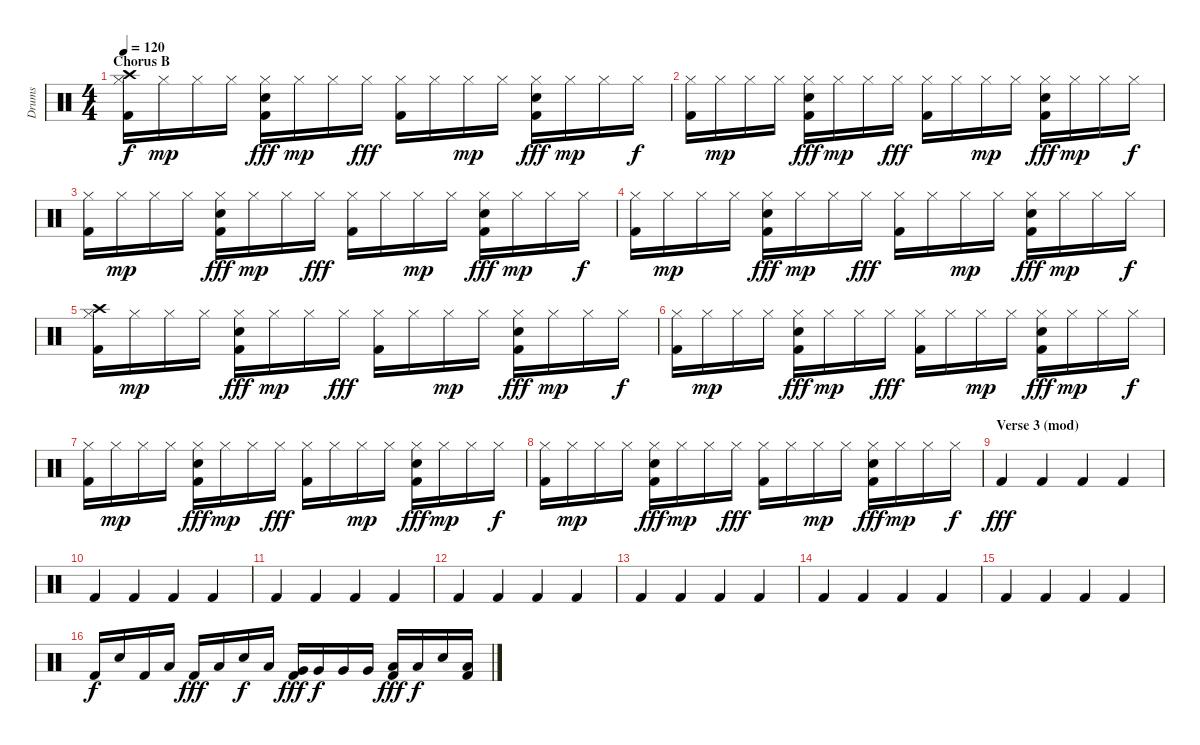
\track ("Drums" "Drums") {instrument percussion}
\staff {score}
\articulation defaults
\ts (4 4)
\section ("" "Chorus B")
\tempo 120
\clef neutral
\ks c
("Hi-Hat (closed)" "Crash high (hit)" "Kick (hit) 2").16{dy f} "Hi-Hat (closed)".16{dy mp} "Hi-Hat (closed)".16 "Hi-Hat (closed)".16 ("Hi-Hat (closed)" "Snare (hit) 2" "Kick (hit) 2").16{dy fff} "Hi-Hat (closed)".16{dy mp} "Hi-Hat (closed)".16 "Hi-Hat (closed)".16{dy fff} ("Hi-Hat (closed)" "Kick (hit) 2").16 "Hi-Hat (closed)".16 "Hi-Hat (closed)".16{dy mp} "Hi-Hat (closed)".16 ("Hi-Hat (closed)" "Snare (hit) 2" "Kick (hit) 2").16{dy fff} "Hi-Hat (closed)".16{dy mp} "Hi-Hat (closed)".16 "Hi-Hat (closed)".16{dy f} |
("Hi-Hat (closed)" "Kick (hit) 2").16 "Hi-Hat (closed)".16{dy mp} "Hi-Hat (closed)".16 "Hi-Hat (closed)".16 ("Hi-Hat (closed)" "Snare (hit) 2" "Kick (hit) 2").16{dy fff} "Hi-Hat (closed)".16{dy mp} "Hi-Hat (closed)".16 "Hi-Hat (closed)".16{dy fff} ("Hi-Hat (closed)" "Kick (hit) 2").16 "Hi-Hat (closed)".16 "Hi-Hat (closed)".16{dy mp} "Hi-Hat (closed)".16 ("Hi-Hat (closed)" "Snare (hit) 2" "Kick (hit) 2").16{dy fff} "Hi-Hat (closed)".16{dy mp} "Hi-Hat (closed)".16 "Hi-Hat (closed)".16{dy f} |
("Hi-Hat (closed)" "Kick (hit) 2").16 "Hi-Hat (closed)".16{dy mp} "Hi-Hat (closed)".16 "Hi-Hat (closed)".16 ("Hi-Hat (closed)" "Snare (hit) 2" "Kick (hit) 2").16{dy fff} "Hi-Hat (closed)".16{dy mp} "Hi-Hat (closed)".16 "Hi-Hat (closed)".16{dy fff} ("Hi-Hat (closed)" "Kick (hit) 2").16 "Hi-Hat (closed)".16 "Hi-Hat (closed)".16{dy mp} "Hi-Hat (closed)".16 ("Hi-Hat (closed)" "Snare (hit) 2" "Kick (hit) 2").16{dy fff} "Hi-Hat (closed)".16{dy mp} "Hi-Hat (closed)".16 "Hi-Hat (closed)".16{dy f} |
("Hi-Hat (closed)" "Kick (hit) 2").16 "Hi-Hat (closed)".16{dy mp} "Hi-Hat (closed)".16 "Hi-Hat (closed)".16 ("Hi-Hat (closed)" "Snare (hit) 2" "Kick (hit) 2").16{dy fff} "Hi-Hat (closed)".16{dy mp} "Hi-Hat (closed)".16 "Hi-Hat (closed)".16{dy fff} ("Hi-Hat (closed)" "Kick (hit) 2").16 "Hi-Hat (closed)".16 "Hi-Hat (closed)".16{dy mp} "Hi-Hat (closed)".16 ("Hi-Hat (closed)" "Snare (hit) 2" "Kick (hit) 2").16{dy fff} "Hi-Hat (closed)".16{dy mp} "Hi-Hat (closed)".16 "Hi-Hat (closed)".16{dy f} |
("Hi-Hat (closed)" "Crash high (hit)" "Kick (hit) 2").16 "Hi-Hat (closed)".16{dy mp} "Hi-Hat (closed)".16 "Hi-Hat (closed)".16 ("Hi-Hat (closed)" "Snare (hit) 2" "Kick (hit) 2").16{dy fff} "Hi-Hat (closed)".16{dy mp} "Hi-Hat (closed)".16 "Hi-Hat (closed)".16{dy fff} ("Hi-Hat (closed)" "Kick (hit) 2").16 "Hi-Hat (closed)".16 "Hi-Hat (closed)".16{dy mp} "Hi-Hat (closed)".16 ("Hi-Hat (closed)" "Snare (hit) 2" "Kick (hit) 2").16{dy fff} "Hi-Hat (closed)".16{dy mp} "Hi-Hat (closed)".16 "Hi-Hat (closed)".16{dy f} |
("Hi-Hat (closed)" "Kick (hit) 2").16 "Hi-Hat (closed)".16{dy mp} "Hi-Hat (closed)".16 "Hi-Hat (closed)".16 ("Hi-Hat (closed)" "Snare (hit) 2" "Kick (hit) 2").16{dy fff} "Hi-Hat (closed)".16{dy mp} "Hi-Hat (closed)".16 "Hi-Hat (closed)".16{dy fff} ("Hi-Hat (closed)" "Kick (hit) 2").16 "Hi-Hat (closed)".16 "Hi-Hat (closed)".16{dy mp} "Hi-Hat (closed)".16 ("Hi-Hat (closed)" "Snare (hit) 2" "Kick (hit) 2").16{dy fff} "Hi-Hat (closed)".16{dy mp} "Hi-Hat (closed)".16 "Hi-Hat (closed)".16{dy f} |
("Hi-Hat (closed)" "Kick (hit) 2").16 "Hi-Hat (closed)".16{dy mp} "Hi-Hat (closed)".16 "Hi-Hat (closed)".16 ("Hi-Hat (closed)" "Snare (hit) 2" "Kick (hit) 2").16{dy fff} "Hi-Hat (closed)".16{dy mp} "Hi-Hat (closed)".16 "Hi-Hat (closed)".16{dy fff} ("Hi-Hat (closed)" "Kick (hit) 2").16 "Hi-Hat (closed)".16 "Hi-Hat (closed)".16{dy mp} "Hi-Hat (closed)".16 ("Hi-Hat (closed)" "Snare (hit) 2" "Kick (hit) 2").16{dy fff} "Hi-Hat (closed)".16{dy mp} "Hi-Hat (closed)".16 "Hi-Hat (closed)".16{dy f} |
("Hi-Hat (closed)" "Kick (hit) 2").16 "Hi-Hat (closed)".16{dy mp} "Hi-Hat (closed)".16 "Hi-Hat (closed)".16 ("Hi-Hat (closed)" "Snare (hit) 2" "Kick (hit) 2").16{dy fff} "Hi-Hat (closed)".16{dy mp} "Hi-Hat (closed)".16 "Hi-Hat (closed)".16{dy fff} ("Hi-Hat (closed)" "Kick (hit) 2").16 "Hi-Hat (closed)".16 "Hi-Hat (closed)".16{dy mp} "Hi-Hat (closed)".16 ("Hi-Hat (closed)" "Snare (hit) 2" "Kick (hit) 2").16{dy fff} "Hi-Hat (closed)".16{dy mp} "Hi-Hat (closed)".16 "Hi-Hat (closed)".16{dy f} |
\section ("" "Verse 3 (mod)")
"Kick (hit) 2".4{dy fff} "Kick (hit) 2".4 "Kick (hit) 2".4 "Kick (hit) 2".4 |
"Kick (hit) 2".4 "Kick (hit) 2".4 "Kick (hit) 2".4 "Kick (hit) 2".4 |
"Kick (hit) 2".4 "Kick (hit) 2".4 "Kick (hit) 2".4 "Kick (hit) 2".4 |
"Kick (hit) 2".4 "Kick (hit) 2".4 "Kick (hit) 2".4 "Kick (hit) 2".4 |
"Kick (hit) 2".4 "Kick (hit) 2".4 "Kick (hit) 2".4 "Kick (hit) 2".4 |
"Kick (hit) 2".4 "Kick (hit) 2".4 "Kick (hit) 2".4 "Kick (hit) 2".4 |
"Kick (hit) 2".4 "Kick (hit) 2".4 "Kick (hit) 2".4 "Kick (hit) 2".4 |
"Kick (hit) 2".16{dy f} "Snare (hit) 2".16 "Kick (hit) 2".16 "Low Tom (hit)".16 "Kick (hit) 2".16{dy fff} "Low Tom (hit)".16 "Snare (hit) 2".16{dy f} "Low Tom (hit)".16 ("Very Low Tom (hit)" "Kick (hit) 2").16{dy fff} "Very Low Tom (hit)".16{dy f} "Very Low Tom (hit)".16 "Very Low Tom (hit)".16 ("Low Floor Tom (hit)" "Kick (hit) 2").16{dy fff} "Low Floor Tom (hit)".16{dy f} "Snare (hit) 2".16 ("Low Floor Tom (hit)" "Kick (hit) 2").16
